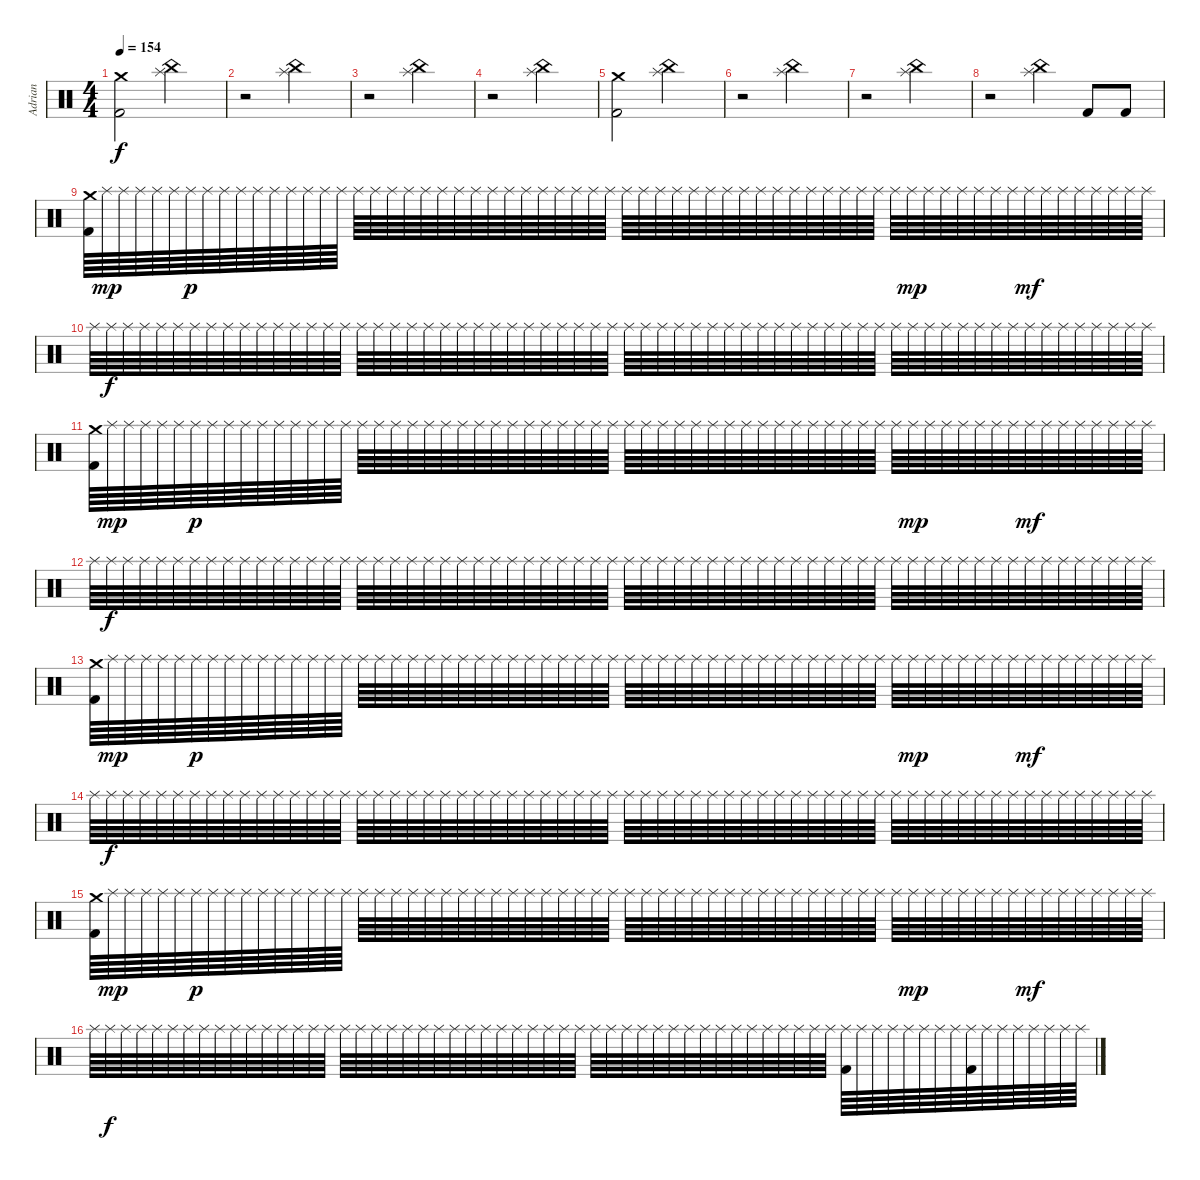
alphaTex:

\track ("Adrian" "Adrian") {instrument percussion}
\staff {score}
\articulation defaults
\ts (4 4)
\tempo 154
\clef neutral
\ks c
("Crash medium (hit)" "Kick (hit) 2").2{dy f} ("China (hit)" "Splash (hit)").2 |
r.2 ("China (hit)" "Splash (hit)").2 |
r.2 ("China (hit)" "Splash (hit)").2 |
r.2 ("China (hit)" "Splash (hit)").2 |
("Crash medium (hit)" "Kick (hit) 2").2 ("China (hit)" "Splash (hit)").2 |
r.2 ("China (hit)" "Splash (hit)").2 |
r.2 ("China (hit)" "Splash (hit)").2 |
r.2 ("China (hit)" "Splash (hit)").4 "Kick (hit) 2".8 "Kick (hit) 2".8 |
("Crash medium (hit)" "Kick (hit) 2").64 "Splash (hit)".64{dy mp} "Splash (hit)".64 "Splash (hit)".64 "Splash (hit)".64 "Splash (hit)".64 "Splash (hit)".64{dy p} "Splash (hit)".64 "Splash (hit)".64 "Splash (hit)".64 "Splash (hit)".64 "Splash (hit)".64 "Splash (hit)".64 "Splash (hit)".64 "Splash (hit)".64 "Splash (hit)".64 "Splash (hit)".64 "Splash (hit)".64 "Splash (hit)".64 "Splash (hit)".64 "Splash (hit)".64 "Splash (hit)".64 "Splash (hit)".64 "Splash (hit)".64 "Splash (hit)".64 "Splash (hit)".64 "Splash (hit)".64 "Splash (hit)".64 "Splash (hit)".64 "Splash (hit)".64 "Splash (hit)".64 "Splash (hit)".64 "Splash (hit)".64 "Splash (hit)".64 "Splash (hit)".64 "Splash (hit)".64 "Splash (hit)".64 "Splash (hit)".64 "Splash (hit)".64 "Splash (hit)".64 "Splash (hit)".64 "Splash (hit)".64 "Splash (hit)".64 "Splash (hit)".64 "Splash (hit)".64 "Splash (hit)".64 "Splash (hit)".64 "Splash (hit)".64 "Splash (hit)".64 "Splash (hit)".64{dy mp} "Splash (hit)".64 "Splash (hit)".64 "Splash (hit)".64 "Splash (hit)".64 "Splash (hit)".64 "Splash (hit)".64 "Splash (hit)".64{dy mf} "Splash (hit)".64 "Splash (hit)".64 "Splash (hit)".64 "Splash (hit)".64 "Splash (hit)".64 "Splash (hit)".64 "Splash (hit)".64 |
"Splash (hit)".64 "Splash (hit)".64{dy f} "Splash (hit)".64 "Splash (hit)".64 "Splash (hit)".64 "Splash (hit)".64 "Splash (hit)".64 "Splash (hit)".64 "Splash (hit)".64 "Splash (hit)".64 "Splash (hit)".64 "Splash (hit)".64 "Splash (hit)".64 "Splash (hit)".64 "Splash (hit)".64 "Splash (hit)".64 "Splash (hit)".64 "Splash (hit)".64 "Splash (hit)".64 "Splash (hit)".64 "Splash (hit)".64 "Splash (hit)".64 "Splash (hit)".64 "Splash (hit)".64 "Splash (hit)".64 "Splash (hit)".64 "Splash (hit)".64 "Splash (hit)".64 "Splash (hit)".64 "Splash (hit)".64 "Splash (hit)".64 "Splash (hit)".64 "Splash (hit)".64 "Splash (hit)".64 "Splash (hit)".64 "Splash (hit)".64 "Splash (hit)".64 "Splash (hit)".64 "Splash (hit)".64 "Splash (hit)".64 "Splash (hit)".64 "Splash (hit)".64 "Splash (hit)".64 "Splash (hit)".64 "Splash (hit)".64 "Splash (hit)".64 "Splash (hit)".64 "Splash (hit)".64 "Splash (hit)".64 "Splash (hit)".64 "Splash (hit)".64 "Splash (hit)".64 "Splash (hit)".64 "Splash (hit)".64 "Splash (hit)".64 "Splash (hit)".64 "Splash (hit)".64 "Splash (hit)".64 "Splash (hit)".64 "Splash (hit)".64 "Splash (hit)".64 "Splash (hit)".64 "Splash (hit)".64 "Splash (hit)".64 |
("Crash medium (hit)" "Kick (hit) 2").64 "Splash (hit)".64{dy mp} "Splash (hit)".64 "Splash (hit)".64 "Splash (hit)".64 "Splash (hit)".64 "Splash (hit)".64{dy p} "Splash (hit)".64 "Splash (hit)".64 "Splash (hit)".64 "Splash (hit)".64 "Splash (hit)".64 "Splash (hit)".64 "Splash (hit)".64 "Splash (hit)".64 "Splash (hit)".64 "Splash (hit)".64 "Splash (hit)".64 "Splash (hit)".64 "Splash (hit)".64 "Splash (hit)".64 "Splash (hit)".64 "Splash (hit)".64 "Splash (hit)".64 "Splash (hit)".64 "Splash (hit)".64 "Splash (hit)".64 "Splash (hit)".64 "Splash (hit)".64 "Splash (hit)".64 "Splash (hit)".64 "Splash (hit)".64 "Splash (hit)".64 "Splash (hit)".64 "Splash (hit)".64 "Splash (hit)".64 "Splash (hit)".64 "Splash (hit)".64 "Splash (hit)".64 "Splash (hit)".64 "Splash (hit)".64 "Splash (hit)".64 "Splash (hit)".64 "Splash (hit)".64 "Splash (hit)".64 "Splash (hit)".64 "Splash (hit)".64 "Splash (hit)".64 "Splash (hit)".64 "Splash (hit)".64{dy mp} "Splash (hit)".64 "Splash (hit)".64 "Splash (hit)".64 "Splash (hit)".64 "Splash (hit)".64 "Splash (hit)".64 "Splash (hit)".64{dy mf} "Splash (hit)".64 "Splash (hit)".64 "Splash (hit)".64 "Splash (hit)".64 "Splash (hit)".64 "Splash (hit)".64 "Splash (hit)".64 |
"Splash (hit)".64 "Splash (hit)".64{dy f} "Splash (hit)".64 "Splash (hit)".64 "Splash (hit)".64 "Splash (hit)".64 "Splash (hit)".64 "Splash (hit)".64 "Splash (hit)".64 "Splash (hit)".64 "Splash (hit)".64 "Splash (hit)".64 "Splash (hit)".64 "Splash (hit)".64 "Splash (hit)".64 "Splash (hit)".64 "Splash (hit)".64 "Splash (hit)".64 "Splash (hit)".64 "Splash (hit)".64 "Splash (hit)".64 "Splash (hit)".64 "Splash (hit)".64 "Splash (hit)".64 "Splash (hit)".64 "Splash (hit)".64 "Splash (hit)".64 "Splash (hit)".64 "Splash (hit)".64 "Splash (hit)".64 "Splash (hit)".64 "Splash (hit)".64 "Splash (hit)".64 "Splash (hit)".64 "Splash (hit)".64 "Splash (hit)".64 "Splash (hit)".64 "Splash (hit)".64 "Splash (hit)".64 "Splash (hit)".64 "Splash (hit)".64 "Splash (hit)".64 "Splash (hit)".64 "Splash (hit)".64 "Splash (hit)".64 "Splash (hit)".64 "Splash (hit)".64 "Splash (hit)".64 "Splash (hit)".64 "Splash (hit)".64 "Splash (hit)".64 "Splash (hit)".64 "Splash (hit)".64 "Splash (hit)".64 "Splash (hit)".64 "Splash (hit)".64 "Splash (hit)".64 "Splash (hit)".64 "Splash (hit)".64 "Splash (hit)".64 "Splash (hit)".64 "Splash (hit)".64 "Splash (hit)".64 "Splash (hit)".64 |
("Crash medium (hit)" "Kick (hit) 2").64 "Splash (hit)".64{dy mp} "Splash (hit)".64 "Splash (hit)".64 "Splash (hit)".64 "Splash (hit)".64 "Splash (hit)".64{dy p} "Splash (hit)".64 "Splash (hit)".64 "Splash (hit)".64 "Splash (hit)".64 "Splash (hit)".64 "Splash (hit)".64 "Splash (hit)".64 "Splash (hit)".64 "Splash (hit)".64 "Splash (hit)".64 "Splash (hit)".64 "Splash (hit)".64 "Splash (hit)".64 "Splash (hit)".64 "Splash (hit)".64 "Splash (hit)".64 "Splash (hit)".64 "Splash (hit)".64 "Splash (hit)".64 "Splash (hit)".64 "Splash (hit)".64 "Splash (hit)".64 "Splash (hit)".64 "Splash (hit)".64 "Splash (hit)".64 "Splash (hit)".64 "Splash (hit)".64 "Splash (hit)".64 "Splash (hit)".64 "Splash (hit)".64 "Splash (hit)".64 "Splash (hit)".64 "Splash (hit)".64 "Splash (hit)".64 "Splash (hit)".64 "Splash (hit)".64 "Splash (hit)".64 "Splash (hit)".64 "Splash (hit)".64 "Splash (hit)".64 "Splash (hit)".64 "Splash (hit)".64 "Splash (hit)".64{dy mp} "Splash (hit)".64 "Splash (hit)".64 "Splash (hit)".64 "Splash (hit)".64 "Splash (hit)".64 "Splash (hit)".64 "Splash (hit)".64{dy mf} "Splash (hit)".64 "Splash (hit)".64 "Splash (hit)".64 "Splash (hit)".64 "Splash (hit)".64 "Splash (hit)".64 "Splash (hit)".64 |
"Splash (hit)".64 "Splash (hit)".64{dy f} "Splash (hit)".64 "Splash (hit)".64 "Splash (hit)".64 "Splash (hit)".64 "Splash (hit)".64 "Splash (hit)".64 "Splash (hit)".64 "Splash (hit)".64 "Splash (hit)".64 "Splash (hit)".64 "Splash (hit)".64 "Splash (hit)".64 "Splash (hit)".64 "Splash (hit)".64 "Splash (hit)".64 "Splash (hit)".64 "Splash (hit)".64 "Splash (hit)".64 "Splash (hit)".64 "Splash (hit)".64 "Splash (hit)".64 "Splash (hit)".64 "Splash (hit)".64 "Splash (hit)".64 "Splash (hit)".64 "Splash (hit)".64 "Splash (hit)".64 "Splash (hit)".64 "Splash (hit)".64 "Splash (hit)".64 "Splash (hit)".64 "Splash (hit)".64 "Splash (hit)".64 "Splash (hit)".64 "Splash (hit)".64 "Splash (hit)".64 "Splash (hit)".64 "Splash (hit)".64 "Splash (hit)".64 "Splash (hit)".64 "Splash (hit)".64 "Splash (hit)".64 "Splash (hit)".64 "Splash (hit)".64 "Splash (hit)".64 "Splash (hit)".64 "Splash (hit)".64 "Splash (hit)".64 "Splash (hit)".64 "Splash (hit)".64 "Splash (hit)".64 "Splash (hit)".64 "Splash (hit)".64 "Splash (hit)".64 "Splash (hit)".64 "Splash (hit)".64 "Splash (hit)".64 "Splash (hit)".64 "Splash (hit)".64 "Splash (hit)".64 "Splash (hit)".64 "Splash (hit)".64 |
("Crash medium (hit)" "Kick (hit) 2").64 "Splash (hit)".64{dy mp} "Splash (hit)".64 "Splash (hit)".64 "Splash (hit)".64 "Splash (hit)".64 "Splash (hit)".64{dy p} "Splash (hit)".64 "Splash (hit)".64 "Splash (hit)".64 "Splash (hit)".64 "Splash (hit)".64 "Splash (hit)".64 "Splash (hit)".64 "Splash (hit)".64 "Splash (hit)".64 "Splash (hit)".64 "Splash (hit)".64 "Splash (hit)".64 "Splash (hit)".64 "Splash (hit)".64 "Splash (hit)".64 "Splash (hit)".64 "Splash (hit)".64 "Splash (hit)".64 "Splash (hit)".64 "Splash (hit)".64 "Splash (hit)".64 "Splash (hit)".64 "Splash (hit)".64 "Splash (hit)".64 "Splash (hit)".64 "Splash (hit)".64 "Splash (hit)".64 "Splash (hit)".64 "Splash (hit)".64 "Splash (hit)".64 "Splash (hit)".64 "Splash (hit)".64 "Splash (hit)".64 "Splash (hit)".64 "Splash (hit)".64 "Splash (hit)".64 "Splash (hit)".64 "Splash (hit)".64 "Splash (hit)".64 "Splash (hit)".64 "Splash (hit)".64 "Splash (hit)".64 "Splash (hit)".64{dy mp} "Splash (hit)".64 "Splash (hit)".64 "Splash (hit)".64 "Splash (hit)".64 "Splash (hit)".64 "Splash (hit)".64 "Splash (hit)".64{dy mf} "Splash (hit)".64 "Splash (hit)".64 "Splash (hit)".64 "Splash (hit)".64 "Splash (hit)".64 "Splash (hit)".64 "Splash (hit)".64 |
"Splash (hit)".64 "Splash (hit)".64{dy f} "Splash (hit)".64 "Splash (hit)".64 "Splash (hit)".64 "Splash (hit)".64 "Splash (hit)".64 "Splash (hit)".64 "Splash (hit)".64 "Splash (hit)".64 "Splash (hit)".64 "Splash (hit)".64 "Splash (hit)".64 "Splash (hit)".64 "Splash (hit)".64 "Splash (hit)".64 "Splash (hit)".64 "Splash (hit)".64 "Splash (hit)".64 "Splash (hit)".64 "Splash (hit)".64 "Splash (hit)".64 "Splash (hit)".64 "Splash (hit)".64 "Splash (hit)".64 "Splash (hit)".64 "Splash (hit)".64 "Splash (hit)".64 "Splash (hit)".64 "Splash (hit)".64 "Splash (hit)".64 "Splash (hit)".64 "Splash (hit)".64 "Splash (hit)".64 "Splash (hit)".64 "Splash (hit)".64 "Splash (hit)".64 "Splash (hit)".64 "Splash (hit)".64 "Splash (hit)".64 "Splash (hit)".64 "Splash (hit)".64 "Splash (hit)".64 "Splash (hit)".64 "Splash (hit)".64 "Splash (hit)".64 "Splash (hit)".64 "Splash (hit)".64 ("Splash (hit)" "Kick (hit) 2").64 "Splash (hit)".64 "Splash (hit)".64 "Splash (hit)".64 "Splash (hit)".64 "Splash (hit)".64 "Splash (hit)".64 "Splash (hit)".64 ("Splash (hit)" "Kick (hit) 2").64 "Splash (hit)".64 "Splash (hit)".64 "Splash (hit)".64 "Splash (hit)".64 "Splash (hit)".64 "Splash (hit)".64 "Splash (hit)".64
